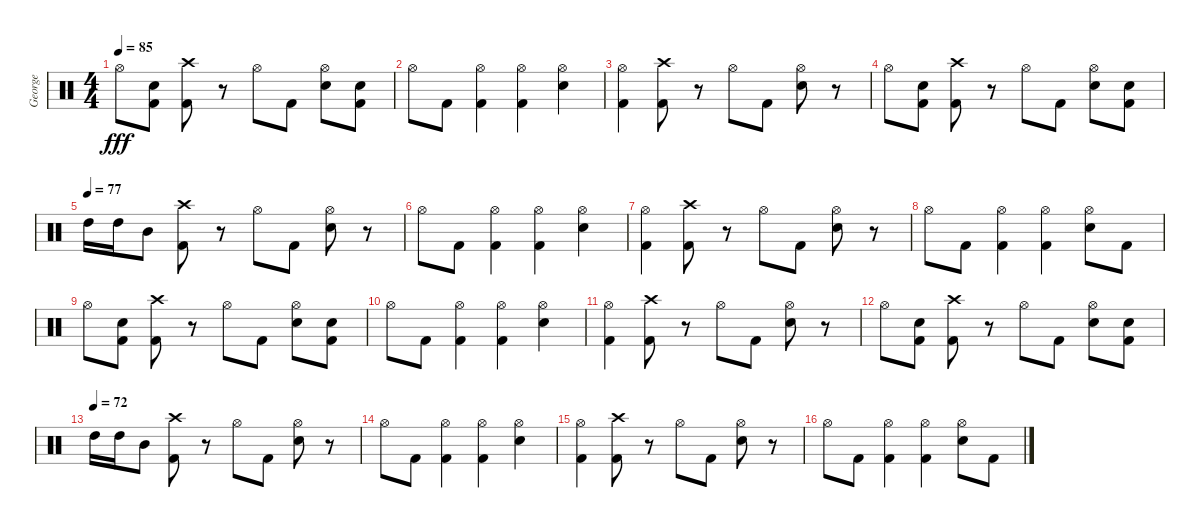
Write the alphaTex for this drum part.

\track ("George" "George") {instrument percussion}
\staff {score}
\articulation defaults
\ts (4 4)
\tempo 85
\clef neutral
\ks c "Hi-Hat (open)".8{dy fff}
("Snare (hit)" "Kick (hit) 2").8 ("Crash high (hit)" "Kick (hit) 2").8 r.8 "Hi-Hat (open)".8 "Kick (hit) 2".8 ("Hi-Hat (open)" "Snare (hit) 2").8 ("Snare (hit)" "Kick (hit) 2").8 |
"Hi-Hat (open)".8 "Kick (hit) 2".8 ("Hi-Hat (open)" "Kick (hit) 2").4 ("Hi-Hat (open)" "Kick (hit) 2").4 ("Snare (hit) 2" "Hi-Hat (open)").4 |
("Hi-Hat (open)" "Kick (hit) 2").4 ("Crash high (hit)" "Kick (hit) 2").8 r.8 "Hi-Hat (open)".8 "Kick (hit) 2".8 ("Hi-Hat (open)" "Snare (hit) 2").8 r.8 |
"Hi-Hat (open)".8 ("Snare (hit)" "Kick (hit) 2").8 ("Crash high (hit)" "Kick (hit) 2").8 r.8 "Hi-Hat (open)".8 "Kick (hit) 2".8 ("Hi-Hat (open)" "Snare (hit) 2").8 ("Snare (hit)" "Kick (hit) 2").8 |
\tempo (77)
"High Tom (hit)".16 "High Tom (hit)".16 "Mid Tom (hit)".8 ("Crash high (hit)" "Kick (hit) 2").8 r.8 "Hi-Hat (open)".8 "Kick (hit) 2".8 ("Hi-Hat (open)" "Snare (hit) 2").8 r.8 |
"Hi-Hat (open)".8 "Kick (hit) 2".8 ("Hi-Hat (open)" "Kick (hit) 2").4 ("Hi-Hat (open)" "Kick (hit) 2").4 ("Snare (hit) 2" "Hi-Hat (open)").4 |
("Hi-Hat (open)" "Kick (hit) 2").4 ("Crash high (hit)" "Kick (hit) 2").8 r.8 "Hi-Hat (open)".8 "Kick (hit) 2".8 ("Hi-Hat (open)" "Snare (hit) 2").8 r.8 |
"Hi-Hat (open)".8 "Kick (hit) 2".8 ("Hi-Hat (open)" "Kick (hit) 2").4 ("Hi-Hat (open)" "Kick (hit) 2").4 ("Snare (hit) 2" "Hi-Hat (open)").8 "Kick (hit) 2".8 |
"Hi-Hat (open)".8 ("Snare (hit)" "Kick (hit) 2").8 ("Crash high (hit)" "Kick (hit) 2").8 r.8 "Hi-Hat (open)".8 "Kick (hit) 2".8 ("Hi-Hat (open)" "Snare (hit) 2").8 ("Snare (hit)" "Kick (hit) 2").8 |
"Hi-Hat (open)".8 "Kick (hit) 2".8 ("Hi-Hat (open)" "Kick (hit) 2").4 ("Hi-Hat (open)" "Kick (hit) 2").4 ("Snare (hit) 2" "Hi-Hat (open)").4 |
("Hi-Hat (open)" "Kick (hit) 2").4 ("Crash high (hit)" "Kick (hit) 2").8 r.8 "Hi-Hat (open)".8 "Kick (hit) 2".8 ("Hi-Hat (open)" "Snare (hit) 2").8 r.8 |
"Hi-Hat (open)".8 ("Snare (hit)" "Kick (hit) 2").8 ("Crash high (hit)" "Kick (hit) 2").8 r.8 "Hi-Hat (open)".8 "Kick (hit) 2".8 ("Hi-Hat (open)" "Snare (hit) 2").8 ("Snare (hit)" "Kick (hit) 2").8 |
\tempo (72)
"High Tom (hit)".16 "High Tom (hit)".16 "Mid Tom (hit)".8 ("Crash high (hit)" "Kick (hit) 2").8 r.8 "Hi-Hat (open)".8 "Kick (hit) 2".8 ("Hi-Hat (open)" "Snare (hit) 2").8 r.8 |
"Hi-Hat (open)".8 "Kick (hit) 2".8 ("Hi-Hat (open)" "Kick (hit) 2").4 ("Hi-Hat (open)" "Kick (hit) 2").4 ("Snare (hit) 2" "Hi-Hat (open)").4 |
("Hi-Hat (open)" "Kick (hit) 2").4 ("Crash high (hit)" "Kick (hit) 2").8 r.8 "Hi-Hat (open)".8 "Kick (hit) 2".8 ("Hi-Hat (open)" "Snare (hit) 2").8 r.8 |
"Hi-Hat (open)".8 "Kick (hit) 2".8 ("Hi-Hat (open)" "Kick (hit) 2").4 ("Hi-Hat (open)" "Kick (hit) 2").4 ("Snare (hit) 2" "Hi-Hat (open)").8 "Kick (hit) 2".8
